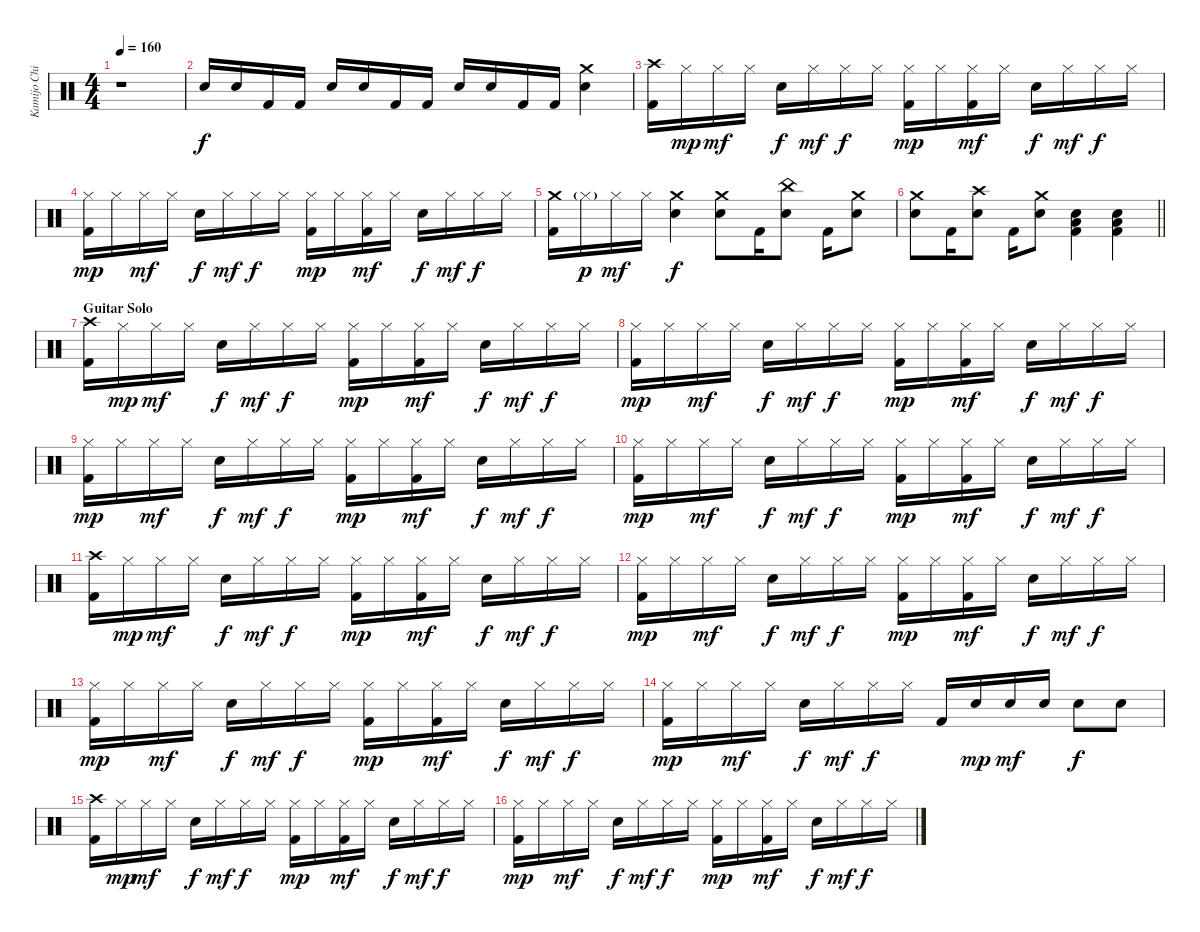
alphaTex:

\track ("Kamijo Chihiro" "Kamijo Chi") {instrument percussion}
\staff {score}
\articulation defaults
\ts (4 4)
\tempo 160
\clef neutral
\ks c
r.1{dy f} |
"Snare (hit) 2".16 "Snare (hit) 2".16 "Kick (hit) 2".16 "Kick (hit) 2".16 "Snare (hit) 2".16 "Snare (hit) 2".16 "Kick (hit) 2".16 "Kick (hit) 2".16 "Snare (hit) 2".16 "Snare (hit) 2".16 "Kick (hit) 2".16 "Kick (hit) 2".16 ("Crash medium (hit)" "Snare (hit) 2").4 |
("Crash high (hit)" "Kick (hit) 2").16 "Hi-Hat (closed)".16{dy mp} "Hi-Hat (closed)".16{dy mf} "Hi-Hat (closed)".16 "Snare (hit) 2".16{dy f} "Hi-Hat (closed)".16{dy mf} "Hi-Hat (closed)".16{dy f} "Hi-Hat (closed)".16 ("Hi-Hat (closed)" "Kick (hit) 2").16{dy mp} "Hi-Hat (closed)".16 ("Hi-Hat (closed)" "Kick (hit) 2").16{dy mf} "Hi-Hat (closed)".16 "Snare (hit) 2".16{dy f} "Hi-Hat (closed)".16{dy mf} "Hi-Hat (closed)".16{dy f} "Hi-Hat (closed)".16 |
("Hi-Hat (closed)" "Kick (hit) 2").16{dy mp} "Hi-Hat (closed)".16 "Hi-Hat (closed)".16{dy mf} "Hi-Hat (closed)".16 "Snare (hit) 2".16{dy f} "Hi-Hat (closed)".16{dy mf} "Hi-Hat (closed)".16{dy f} "Hi-Hat (closed)".16 ("Hi-Hat (closed)" "Kick (hit) 2").16{dy mp} "Hi-Hat (closed)".16 ("Hi-Hat (closed)" "Kick (hit) 2").16{dy mf} "Hi-Hat (closed)".16 "Snare (hit) 2".16{dy f} "Hi-Hat (closed)".16{dy mf} "Hi-Hat (closed)".16{dy f} "Hi-Hat (closed)".16 |
("Crash medium (hit)" "Kick (hit) 2").16 "Hi-Hat (closed)"{g}.16{dy p} "Hi-Hat (closed)".16{dy mf} "Hi-Hat (closed)".16 ("Crash medium (hit)" "Snare (hit) 2").4{dy f} ("Crash medium (hit)" "Snare (hit) 2").8 "Kick (hit) 2".16 ("China (hit)" "Snare (hit) 2").8 "Kick (hit) 2".16 ("Crash medium (hit)" "Snare (hit) 2").8 |
\barLineRight lightlight
("Crash medium (hit)" "Snare (hit) 2").8 "Kick (hit) 2".16 ("Crash high (hit)" "Snare (hit) 2").8 "Kick (hit) 2".16 ("Crash medium (hit)" "Snare (hit) 2").8 ("Snare (hit) 2" "Low Floor Tom (hit)" "Kick (hit) 2").4 ("Snare (hit) 2" "Low Floor Tom (hit)" "Kick (hit) 2").4 |
\section ("" "Guitar Solo")
("Crash high (hit)" "Kick (hit) 2").16 "Hi-Hat (closed)".16{dy mp} "Hi-Hat (closed)".16{dy mf} "Hi-Hat (closed)".16 "Snare (hit) 2".16{dy f} "Hi-Hat (closed)".16{dy mf} "Hi-Hat (closed)".16{dy f} "Hi-Hat (closed)".16 ("Hi-Hat (closed)" "Kick (hit) 2").16{dy mp} "Hi-Hat (closed)".16 ("Hi-Hat (closed)" "Kick (hit) 2").16{dy mf} "Hi-Hat (closed)".16 "Snare (hit) 2".16{dy f} "Hi-Hat (closed)".16{dy mf} "Hi-Hat (closed)".16{dy f} "Hi-Hat (closed)".16 |
("Hi-Hat (closed)" "Kick (hit) 2").16{dy mp} "Hi-Hat (closed)".16 "Hi-Hat (closed)".16{dy mf} "Hi-Hat (closed)".16 "Snare (hit) 2".16{dy f} "Hi-Hat (closed)".16{dy mf} "Hi-Hat (closed)".16{dy f} "Hi-Hat (closed)".16 ("Hi-Hat (closed)" "Kick (hit) 2").16{dy mp} "Hi-Hat (closed)".16 ("Hi-Hat (closed)" "Kick (hit) 2").16{dy mf} "Hi-Hat (closed)".16 "Snare (hit) 2".16{dy f} "Hi-Hat (closed)".16{dy mf} "Hi-Hat (closed)".16{dy f} "Hi-Hat (closed)".16 |
("Hi-Hat (closed)" "Kick (hit) 2").16{dy mp} "Hi-Hat (closed)".16 "Hi-Hat (closed)".16{dy mf} "Hi-Hat (closed)".16 "Snare (hit) 2".16{dy f} "Hi-Hat (closed)".16{dy mf} "Hi-Hat (closed)".16{dy f} "Hi-Hat (closed)".16 ("Hi-Hat (closed)" "Kick (hit) 2").16{dy mp} "Hi-Hat (closed)".16 ("Hi-Hat (closed)" "Kick (hit) 2").16{dy mf} "Hi-Hat (closed)".16 "Snare (hit) 2".16{dy f} "Hi-Hat (closed)".16{dy mf} "Hi-Hat (closed)".16{dy f} "Hi-Hat (closed)".16 |
("Hi-Hat (closed)" "Kick (hit) 2").16{dy mp} "Hi-Hat (closed)".16 "Hi-Hat (closed)".16{dy mf} "Hi-Hat (closed)".16 "Snare (hit) 2".16{dy f} "Hi-Hat (closed)".16{dy mf} "Hi-Hat (closed)".16{dy f} "Hi-Hat (closed)".16 ("Hi-Hat (closed)" "Kick (hit) 2").16{dy mp} "Hi-Hat (closed)".16 ("Hi-Hat (closed)" "Kick (hit) 2").16{dy mf} "Hi-Hat (closed)".16 "Snare (hit) 2".16{dy f} "Hi-Hat (closed)".16{dy mf} "Hi-Hat (closed)".16{dy f} "Hi-Hat (closed)".16 |
("Crash high (hit)" "Kick (hit) 2").16 "Hi-Hat (closed)".16{dy mp} "Hi-Hat (closed)".16{dy mf} "Hi-Hat (closed)".16 "Snare (hit) 2".16{dy f} "Hi-Hat (closed)".16{dy mf} "Hi-Hat (closed)".16{dy f} "Hi-Hat (closed)".16 ("Hi-Hat (closed)" "Kick (hit) 2").16{dy mp} "Hi-Hat (closed)".16 ("Hi-Hat (closed)" "Kick (hit) 2").16{dy mf} "Hi-Hat (closed)".16 "Snare (hit) 2".16{dy f} "Hi-Hat (closed)".16{dy mf} "Hi-Hat (closed)".16{dy f} "Hi-Hat (closed)".16 |
("Hi-Hat (closed)" "Kick (hit) 2").16{dy mp} "Hi-Hat (closed)".16 "Hi-Hat (closed)".16{dy mf} "Hi-Hat (closed)".16 "Snare (hit) 2".16{dy f} "Hi-Hat (closed)".16{dy mf} "Hi-Hat (closed)".16{dy f} "Hi-Hat (closed)".16 ("Hi-Hat (closed)" "Kick (hit) 2").16{dy mp} "Hi-Hat (closed)".16 ("Hi-Hat (closed)" "Kick (hit) 2").16{dy mf} "Hi-Hat (closed)".16 "Snare (hit) 2".16{dy f} "Hi-Hat (closed)".16{dy mf} "Hi-Hat (closed)".16{dy f} "Hi-Hat (closed)".16 |
("Hi-Hat (closed)" "Kick (hit) 2").16{dy mp} "Hi-Hat (closed)".16 "Hi-Hat (closed)".16{dy mf} "Hi-Hat (closed)".16 "Snare (hit) 2".16{dy f} "Hi-Hat (closed)".16{dy mf} "Hi-Hat (closed)".16{dy f} "Hi-Hat (closed)".16 ("Hi-Hat (closed)" "Kick (hit) 2").16{dy mp} "Hi-Hat (closed)".16 ("Hi-Hat (closed)" "Kick (hit) 2").16{dy mf} "Hi-Hat (closed)".16 "Snare (hit) 2".16{dy f} "Hi-Hat (closed)".16{dy mf} "Hi-Hat (closed)".16{dy f} "Hi-Hat (closed)".16 |
("Hi-Hat (closed)" "Kick (hit) 2").16{dy mp} "Hi-Hat (closed)".16 "Hi-Hat (closed)".16{dy mf} "Hi-Hat (closed)".16 "Snare (hit) 2".16{dy f} "Hi-Hat (closed)".16{dy mf} "Hi-Hat (closed)".16{dy f} "Hi-Hat (closed)".16 "Kick (hit) 2".16 "Snare (hit) 2".16{dy mp} "Snare (hit) 2".16{dy mf} "Snare (hit) 2".16 "Snare (hit) 2".8{dy f} "Snare (hit) 2".8 |
("Crash high (hit)" "Kick (hit) 2").16 "Hi-Hat (closed)".16{dy mp} "Hi-Hat (closed)".16{dy mf} "Hi-Hat (closed)".16 "Snare (hit) 2".16{dy f} "Hi-Hat (closed)".16{dy mf} "Hi-Hat (closed)".16{dy f} "Hi-Hat (closed)".16 ("Hi-Hat (closed)" "Kick (hit) 2").16{dy mp} "Hi-Hat (closed)".16 ("Hi-Hat (closed)" "Kick (hit) 2").16{dy mf} "Hi-Hat (closed)".16 "Snare (hit) 2".16{dy f} "Hi-Hat (closed)".16{dy mf} "Hi-Hat (closed)".16{dy f} "Hi-Hat (closed)".16 |
("Hi-Hat (closed)" "Kick (hit) 2").16{dy mp} "Hi-Hat (closed)".16 "Hi-Hat (closed)".16{dy mf} "Hi-Hat (closed)".16 "Snare (hit) 2".16{dy f} "Hi-Hat (closed)".16{dy mf} "Hi-Hat (closed)".16{dy f} "Hi-Hat (closed)".16 ("Hi-Hat (closed)" "Kick (hit) 2").16{dy mp} "Hi-Hat (closed)".16 ("Hi-Hat (closed)" "Kick (hit) 2").16{dy mf} "Hi-Hat (closed)".16 "Snare (hit) 2".16{dy f} "Hi-Hat (closed)".16{dy mf} "Hi-Hat (closed)".16{dy f} "Hi-Hat (closed)".16
